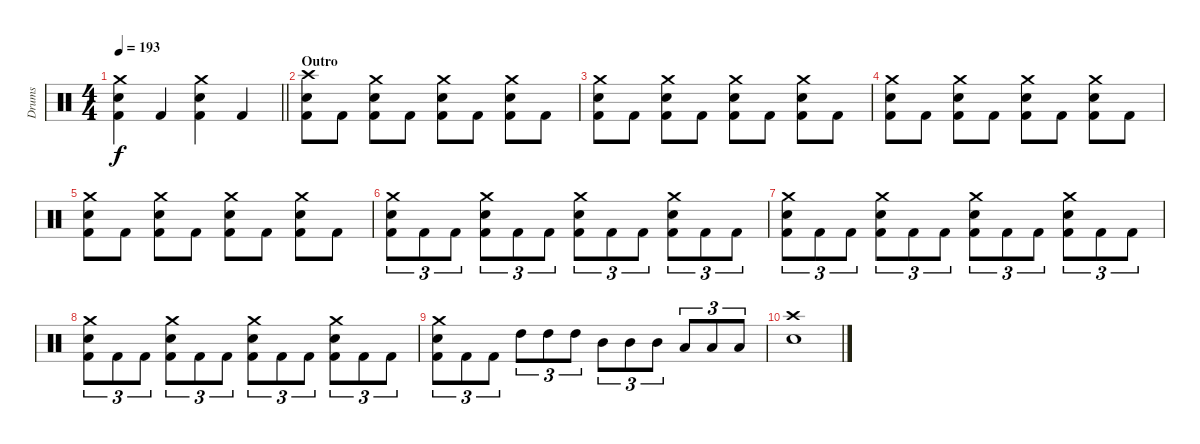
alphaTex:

\track ("Drums" "Drums") {instrument percussion}
\staff {score}
\articulation defaults
\ts (4 4)
\tempo 193
\clef neutral
\barLineRight lightlight
\ks c
("Crash medium (hit)" "Snare (hit) 2" "Kick (hit) 2").4{dy f} "Kick (hit) 2".4 ("Crash medium (hit)" "Snare (hit) 2" "Kick (hit) 2").4 "Kick (hit) 2".4 |
\section ("" "Outro")
("Crash high (hit)" "Snare (hit) 2" "Kick (hit) 2").8 "Kick (hit) 2".8 ("Crash medium (hit)" "Snare (hit) 2" "Kick (hit) 2").8 "Kick (hit) 2".8 ("Crash medium (hit)" "Snare (hit) 2" "Kick (hit) 2").8 "Kick (hit) 2".8 ("Crash medium (hit)" "Snare (hit) 2" "Kick (hit) 2").8 "Kick (hit) 2".8 |
("Crash medium (hit)" "Snare (hit) 2" "Kick (hit) 2").8 "Kick (hit) 2".8 ("Crash medium (hit)" "Snare (hit) 2" "Kick (hit) 2").8 "Kick (hit) 2".8 ("Crash medium (hit)" "Snare (hit) 2" "Kick (hit) 2").8 "Kick (hit) 2".8 ("Crash medium (hit)" "Snare (hit) 2" "Kick (hit) 2").8 "Kick (hit) 2".8 |
("Crash medium (hit)" "Snare (hit) 2" "Kick (hit) 2").8 "Kick (hit) 2".8 ("Crash medium (hit)" "Snare (hit) 2" "Kick (hit) 2").8 "Kick (hit) 2".8 ("Crash medium (hit)" "Snare (hit) 2" "Kick (hit) 2").8 "Kick (hit) 2".8 ("Crash medium (hit)" "Snare (hit) 2" "Kick (hit) 2").8 "Kick (hit) 2".8 |
("Crash medium (hit)" "Snare (hit) 2" "Kick (hit) 2").8 "Kick (hit) 2".8 ("Crash medium (hit)" "Snare (hit) 2" "Kick (hit) 2").8 "Kick (hit) 2".8 ("Crash medium (hit)" "Snare (hit) 2" "Kick (hit) 2").8 "Kick (hit) 2".8 ("Crash medium (hit)" "Snare (hit) 2" "Kick (hit) 2").8 "Kick (hit) 2".8 |
("Crash medium (hit)" "Snare (hit) 2" "Kick (hit) 2").8{tu (3 2)} "Kick (hit) 2".8{tu (3 2)} "Kick (hit) 2".8{tu (3 2)} ("Crash medium (hit)" "Snare (hit) 2" "Kick (hit) 2").8{tu (3 2)} "Kick (hit) 2".8{tu (3 2)} "Kick (hit) 2".8{tu (3 2)} ("Crash medium (hit)" "Snare (hit) 2" "Kick (hit) 2").8{tu (3 2)} "Kick (hit) 2".8{tu (3 2)} "Kick (hit) 2".8{tu (3 2)} ("Crash medium (hit)" "Snare (hit) 2" "Kick (hit) 2").8{tu (3 2)} "Kick (hit) 2".8{tu (3 2)} "Kick (hit) 2".8{tu (3 2)} |
("Crash medium (hit)" "Snare (hit) 2" "Kick (hit) 2").8{tu (3 2)} "Kick (hit) 2".8{tu (3 2)} "Kick (hit) 2".8{tu (3 2)} ("Crash medium (hit)" "Snare (hit) 2" "Kick (hit) 2").8{tu (3 2)} "Kick (hit) 2".8{tu (3 2)} "Kick (hit) 2".8{tu (3 2)} ("Crash medium (hit)" "Snare (hit) 2" "Kick (hit) 2").8{tu (3 2)} "Kick (hit) 2".8{tu (3 2)} "Kick (hit) 2".8{tu (3 2)} ("Crash medium (hit)" "Snare (hit) 2" "Kick (hit) 2").8{tu (3 2)} "Kick (hit) 2".8{tu (3 2)} "Kick (hit) 2".8{tu (3 2)} |
("Crash medium (hit)" "Snare (hit) 2" "Kick (hit) 2").8{tu (3 2)} "Kick (hit) 2".8{tu (3 2)} "Kick (hit) 2".8{tu (3 2)} ("Crash medium (hit)" "Snare (hit) 2" "Kick (hit) 2").8{tu (3 2)} "Kick (hit) 2".8{tu (3 2)} "Kick (hit) 2".8{tu (3 2)} ("Crash medium (hit)" "Snare (hit) 2" "Kick (hit) 2").8{tu (3 2)} "Kick (hit) 2".8{tu (3 2)} "Kick (hit) 2".8{tu (3 2)} ("Crash medium (hit)" "Snare (hit) 2" "Kick (hit) 2").8{tu (3 2)} "Kick (hit) 2".8{tu (3 2)} "Kick (hit) 2".8{tu (3 2)} |
("Crash medium (hit)" "Snare (hit) 2" "Kick (hit) 2").8{tu (3 2)} "Kick (hit) 2".8{tu (3 2)} "Kick (hit) 2".8{tu (3 2)} "High Tom (hit)".8{tu (3 2)} "High Tom (hit)".8{tu (3 2)} "High Tom (hit)".8{tu (3 2)} "Mid Tom (hit)".8{tu (3 2)} "Mid Tom (hit)".8{tu (3 2)} "Mid Tom (hit)".8{tu (3 2)} "Low Tom (hit)".8{tu (3 2)} "Low Tom (hit)".8{tu (3 2)} "Low Tom (hit)".8{tu (3 2)} |
("Crash high (hit)" "Snare (hit) 2").1
